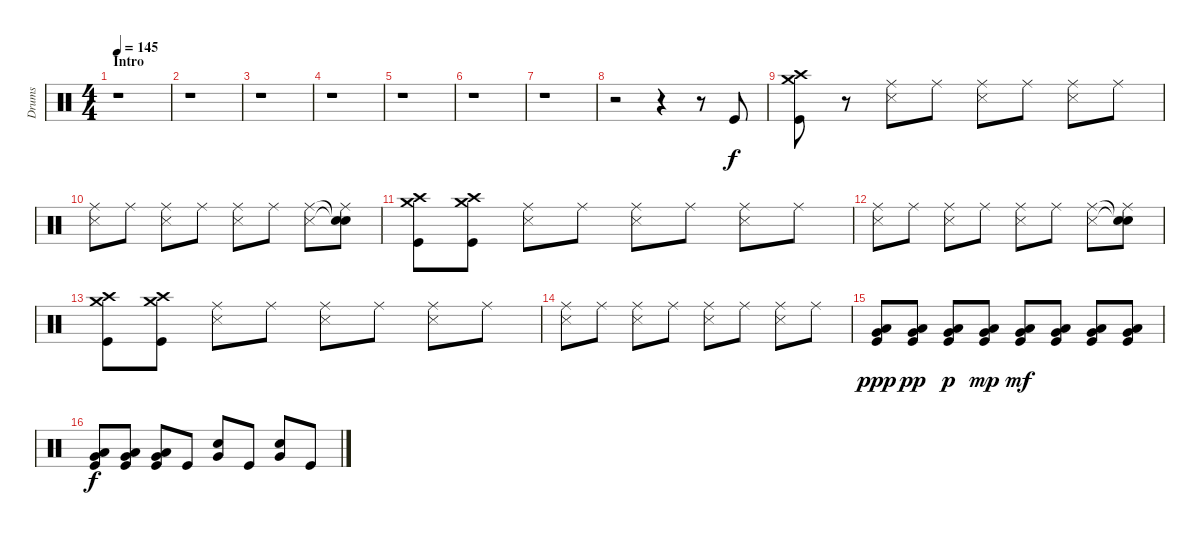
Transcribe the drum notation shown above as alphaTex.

\track ("Drums" "Drums") {instrument percussion}
\staff {score}
\articulation defaults
\ts (4 4)
\section ("" "Intro")
\tempo 145
\clef neutral
\ks c
r.1{dy f} |
r.1 |
r.1 |
r.1 |
r.1 |
r.1 |
r.1 |
r.2 r.4 r.8 "Kick (hit)".8 |
("Crash medium (hit)" "Crash high (hit)" "Kick (hit)").8 r.8 ("Ride (middle)" "Snare (side stick) 3").8 "Ride (middle)".8 ("Ride (middle)" "Snare (side stick) 3").8 "Ride (middle)".8 ("Ride (middle)" "Snare (side stick) 3").8 "Ride (middle)".8 |
("Ride (middle)" "Snare (side stick) 3").8 "Ride (middle)".8 ("Ride (middle)" "Snare (side stick) 3").8 "Ride (middle)".8 ("Ride (middle)" "Snare (side stick) 3").8 "Ride (middle)".8 ("Ride (middle)" "Snare (side stick) 3").8 ("Snare (hit)"{t} "Snare (hit)"{t} "Ride (middle)").8 |
("Crash medium (hit)" "Crash high (hit)" "Kick (hit)").8 ("Crash medium (hit)" "Crash high (hit)" "Kick (hit)").8 ("Ride (middle)" "Snare (side stick) 3").8 "Ride (middle)".8 ("Ride (middle)" "Snare (side stick) 3").8 "Ride (middle)".8 ("Ride (middle)" "Snare (side stick) 3").8 "Ride (middle)".8 |
("Ride (middle)" "Snare (side stick) 3").8 "Ride (middle)".8 ("Ride (middle)" "Snare (side stick) 3").8 "Ride (middle)".8 ("Ride (middle)" "Snare (side stick) 3").8 "Ride (middle)".8 ("Ride (middle)" "Snare (side stick) 3").8 ("Snare (hit)"{t} "Snare (hit)"{t} "Ride (middle)").8 |
("Crash medium (hit)" "Crash high (hit)" "Kick (hit)").8 ("Crash medium (hit)" "Crash high (hit)" "Kick (hit)").8 ("Ride (middle)" "Snare (side stick) 3").8 "Ride (middle)".8 ("Ride (middle)" "Snare (side stick) 3").8 "Ride (middle)".8 ("Ride (middle)" "Snare (side stick) 3").8 "Ride (middle)".8 |
("Ride (middle)" "Snare (side stick) 3").8 "Ride (middle)".8 ("Ride (middle)" "Snare (side stick) 3").8 "Ride (middle)".8 ("Ride (middle)" "Snare (side stick) 3").8 "Ride (middle)".8 ("Ride (middle)" "Snare (side stick) 3").8 "Ride (middle)".8 |
("Low Floor Tom (hit)" "Very Low Tom (hit)" "Kick (hit)").8{dy ppp} ("Low Floor Tom (hit)" "Very Low Tom (hit)" "Kick (hit)").8{dy pp} ("Low Floor Tom (hit)" "Very Low Tom (hit)" "Kick (hit)").8{dy p} ("Low Floor Tom (hit)" "Very Low Tom (hit)" "Kick (hit)").8{dy mp} ("Low Floor Tom (hit)" "Very Low Tom (hit)" "Kick (hit)").8{dy mf} ("Low Floor Tom (hit)" "Very Low Tom (hit)" "Kick (hit)").8 ("Low Floor Tom (hit)" "Very Low Tom (hit)" "Kick (hit)").8 ("Low Floor Tom (hit)" "Very Low Tom (hit)" "Kick (hit)").8 |
("Low Floor Tom (hit)" "Very Low Tom (hit)" "Kick (hit)").8{dy f} ("Low Floor Tom (hit)" "Very Low Tom (hit)" "Kick (hit)").8 ("Low Floor Tom (hit)" "Very Low Tom (hit)" "Kick (hit)").8 "Kick (hit)".8 ("Electric Snare (hit)" "Very Low Tom (hit)").8 "Kick (hit)".8 ("Electric Snare (hit)" "Very Low Tom (hit)").8 "Kick (hit)".8
